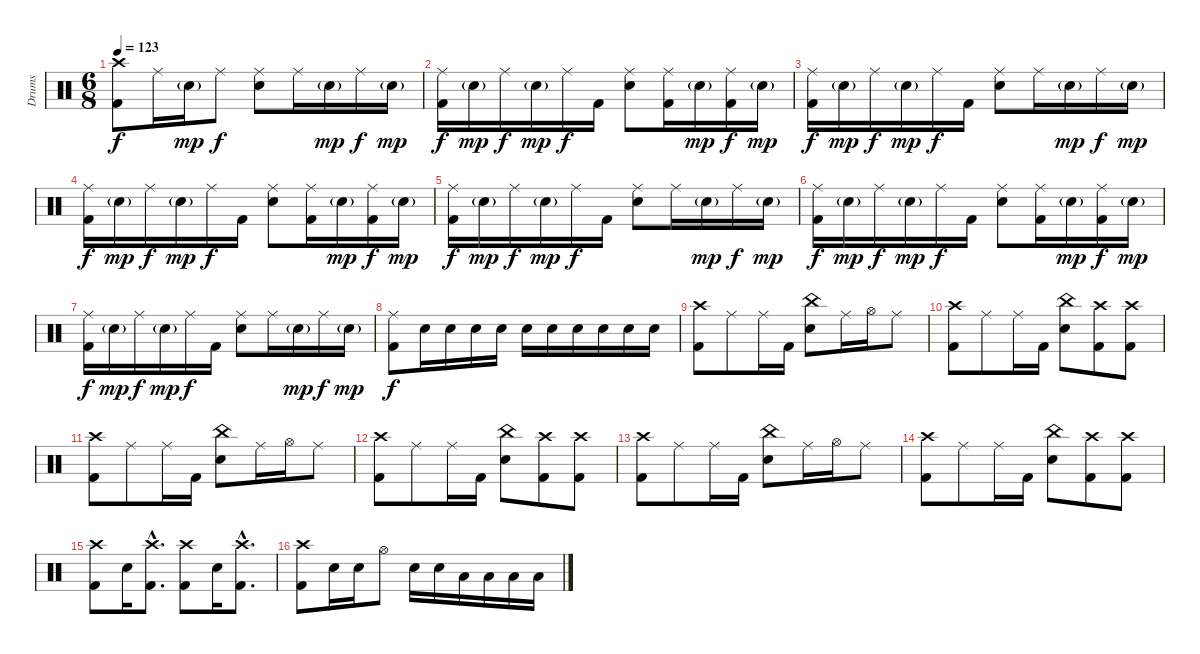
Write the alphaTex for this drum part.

\track ("Drums" "Drums") {instrument percussion}
\staff {score}
\articulation defaults
\ts (6 8)
\tempo 123
\clef neutral
\ks c
("Crash high (hit)" "Kick (hit) 2").8{dy f} "Ride (middle)".16 "Electric Snare (hit)"{g}.16{dy mp} "Ride (middle)".8{dy f} ("Ride (middle)" "Electric Snare (hit)").8 "Ride (middle)".16 "Electric Snare (hit)"{g}.16{dy mp} "Ride (middle)".16{dy f} "Electric Snare (hit)"{g}.16{dy mp} |
("Ride (middle)" "Kick (hit) 2").16{dy f} "Electric Snare (hit)"{g}.16{dy mp} "Ride (middle)".16{dy f} "Electric Snare (hit)"{g}.16{dy mp} "Ride (middle)".16{dy f} "Kick (hit) 2".16 ("Ride (middle)" "Electric Snare (hit)").8 ("Ride (middle)" "Kick (hit) 2").16 "Electric Snare (hit)"{g}.16{dy mp} ("Ride (middle)" "Kick (hit) 2").16{dy f} "Electric Snare (hit)"{g}.16{dy mp} |
("Ride (middle)" "Kick (hit) 2").16{dy f} "Electric Snare (hit)"{g}.16{dy mp} "Ride (middle)".16{dy f} "Electric Snare (hit)"{g}.16{dy mp} "Ride (middle)".16{dy f} "Kick (hit) 2".16 ("Ride (middle)" "Electric Snare (hit)").8 "Ride (middle)".16 "Electric Snare (hit)"{g}.16{dy mp} "Ride (middle)".16{dy f} "Electric Snare (hit)"{g}.16{dy mp} |
("Ride (middle)" "Kick (hit) 2").16{dy f} "Electric Snare (hit)"{g}.16{dy mp} "Ride (middle)".16{dy f} "Electric Snare (hit)"{g}.16{dy mp} "Ride (middle)".16{dy f} "Kick (hit) 2".16 ("Ride (middle)" "Electric Snare (hit)").8 ("Ride (middle)" "Kick (hit) 2").16 "Electric Snare (hit)"{g}.16{dy mp} ("Ride (middle)" "Kick (hit) 2").16{dy f} "Electric Snare (hit)"{g}.16{dy mp} |
("Ride (middle)" "Kick (hit) 2").16{dy f} "Electric Snare (hit)"{g}.16{dy mp} "Ride (middle)".16{dy f} "Electric Snare (hit)"{g}.16{dy mp} "Ride (middle)".16{dy f} "Kick (hit) 2".16 ("Ride (middle)" "Electric Snare (hit)").8 "Ride (middle)".16 "Electric Snare (hit)"{g}.16{dy mp} "Ride (middle)".16{dy f} "Electric Snare (hit)"{g}.16{dy mp} |
("Ride (middle)" "Kick (hit) 2").16{dy f} "Electric Snare (hit)"{g}.16{dy mp} "Ride (middle)".16{dy f} "Electric Snare (hit)"{g}.16{dy mp} "Ride (middle)".16{dy f} "Kick (hit) 2".16 ("Ride (middle)" "Electric Snare (hit)").8 ("Ride (middle)" "Kick (hit) 2").16 "Electric Snare (hit)"{g}.16{dy mp} ("Ride (middle)" "Kick (hit) 2").16{dy f} "Electric Snare (hit)"{g}.16{dy mp} |
("Ride (middle)" "Kick (hit) 2").16{dy f} "Electric Snare (hit)"{g}.16{dy mp} "Ride (middle)".16{dy f} "Electric Snare (hit)"{g}.16{dy mp} "Ride (middle)".16{dy f} "Kick (hit) 2".16 ("Ride (middle)" "Electric Snare (hit)").8 "Ride (middle)".16 "Electric Snare (hit)"{g}.16{dy mp} "Ride (middle)".16{dy f} "Electric Snare (hit)"{g}.16{dy mp} |
("Ride (middle)" "Kick (hit) 2").8{dy f} "Electric Snare (hit)".16 "Electric Snare (hit)".16 "Electric Snare (hit)".16 "Electric Snare (hit)".16 "Electric Snare (hit)".16 "Electric Snare (hit)".16 "Electric Snare (hit)".16 "Electric Snare (hit)".16 "Electric Snare (hit)".16 "Electric Snare (hit)".16 |
("Crash high (hit)" "Kick (hit) 2").8 "Ride (middle)".8 "Ride (middle)".16 "Kick (hit) 2".16 ("China (hit)" "Electric Snare (hit)").8 "Ride (middle)".16 "Hi-Hat (open)".16 "Ride (middle)".8 |
("Crash high (hit)" "Kick (hit) 2").8 "Ride (middle)".8 "Ride (middle)".16 "Kick (hit) 2".16 ("China (hit)" "Electric Snare (hit)").8 ("Crash high (hit)" "Kick (hit) 2").8 ("Crash high (hit)" "Kick (hit) 2").8 |
("Crash high (hit)" "Kick (hit) 2").8 "Ride (middle)".8 "Ride (middle)".16 "Kick (hit) 2".16 ("China (hit)" "Electric Snare (hit)").8 "Ride (middle)".16 "Hi-Hat (open)".16 "Ride (middle)".8 |
("Crash high (hit)" "Kick (hit) 2").8 "Ride (middle)".8 "Ride (middle)".16 "Kick (hit) 2".16 ("China (hit)" "Electric Snare (hit)").8 ("Crash high (hit)" "Kick (hit) 2").8 ("Crash high (hit)" "Kick (hit) 2").8 |
("Crash high (hit)" "Kick (hit) 2").8 "Ride (middle)".8 "Ride (middle)".16 "Kick (hit) 2".16 ("China (hit)" "Electric Snare (hit)").8 "Ride (middle)".16 "Hi-Hat (open)".16 "Ride (middle)".8 |
("Crash high (hit)" "Kick (hit) 2").8 "Ride (middle)".8 "Ride (middle)".16 "Kick (hit) 2".16 ("China (hit)" "Electric Snare (hit)").8 ("Crash high (hit)" "Kick (hit) 2").8 ("Crash high (hit)" "Kick (hit) 2").8 |
("Crash high (hit)" "Kick (hit) 2").8 "Electric Snare (hit)".16 ("Crash high (hit)"{hac} "Kick (hit) 2"{hac}).8{d} ("Crash high (hit)" "Kick (hit) 2").8 "Electric Snare (hit)".16 ("Crash high (hit)"{hac} "Kick (hit) 2"{hac}).8{d} |
("Crash high (hit)" "Kick (hit) 2").8 "Electric Snare (hit)".16 "Electric Snare (hit)".16 "Hi-Hat (open)".8 "Electric Snare (hit)".16 "Electric Snare (hit)".16 "Low Tom (hit)".16 "Low Tom (hit)".16 "Low Floor Tom (hit)".16 "Low Floor Tom (hit)".16
